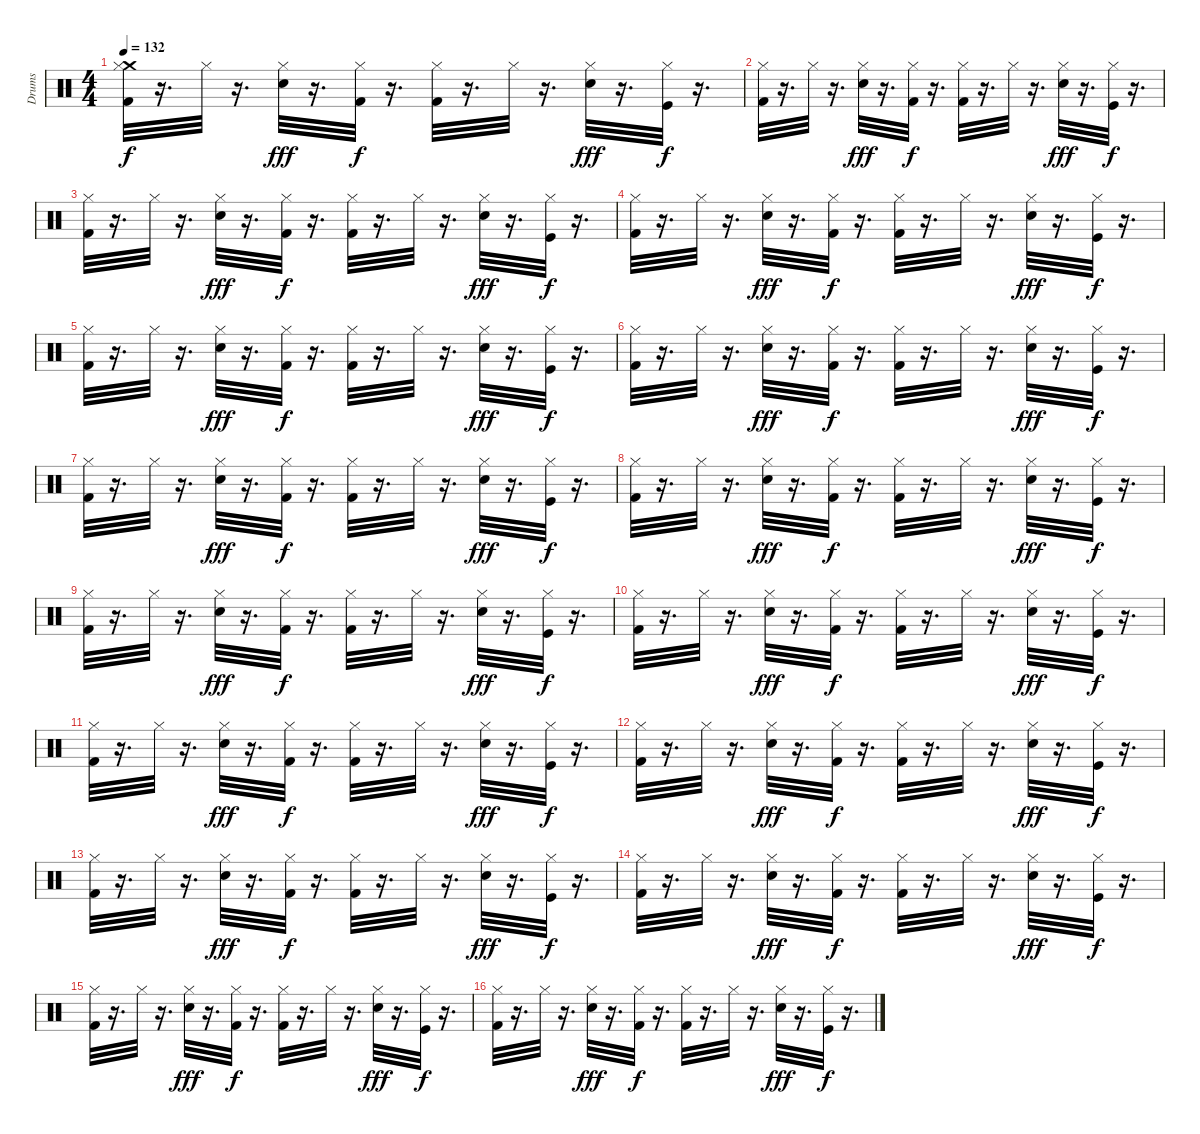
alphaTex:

\track ("Drums" "Drums") {instrument percussion}
\staff {score}
\articulation defaults
\ts (4 4)
\tempo 132
\clef neutral
\ks c
("Crash medium (hit)" "Hi-Hat (closed)" "Kick (hit) 2").32{dy f} r.16{d} "Hi-Hat (closed)".32 r.16{d} ("Hi-Hat (closed)" "Hand Clap (hit)").32{dy fff} r.16{d} ("Hi-Hat (closed)" "Kick (hit) 2").32{dy f} r.16{d} ("Hi-Hat (closed)" "Kick (hit) 2").32 r.16{d} "Hi-Hat (closed)".32 r.16{d} ("Hi-Hat (closed)" "Hand Clap (hit)").32{dy fff} r.16{d} ("Hi-Hat (closed)" "Kick (hit)").32{dy f} r.16{d} |
("Hi-Hat (closed)" "Kick (hit) 2").32 r.16{d} "Hi-Hat (closed)".32 r.16{d} ("Hi-Hat (closed)" "Hand Clap (hit)").32{dy fff} r.16{d} ("Hi-Hat (closed)" "Kick (hit) 2").32{dy f} r.16{d} ("Hi-Hat (closed)" "Kick (hit) 2").32 r.16{d} "Hi-Hat (closed)".32 r.16{d} ("Hi-Hat (closed)" "Hand Clap (hit)").32{dy fff} r.16{d} ("Hi-Hat (closed)" "Kick (hit)").32{dy f} r.16{d} |
("Hi-Hat (closed)" "Kick (hit) 2").32 r.16{d} "Hi-Hat (closed)".32 r.16{d} ("Hi-Hat (closed)" "Hand Clap (hit)").32{dy fff} r.16{d} ("Hi-Hat (closed)" "Kick (hit) 2").32{dy f} r.16{d} ("Hi-Hat (closed)" "Kick (hit) 2").32 r.16{d} "Hi-Hat (closed)".32 r.16{d} ("Hi-Hat (closed)" "Hand Clap (hit)").32{dy fff} r.16{d} ("Hi-Hat (closed)" "Kick (hit)").32{dy f} r.16{d} |
("Hi-Hat (closed)" "Kick (hit) 2").32 r.16{d} "Hi-Hat (closed)".32 r.16{d} ("Hi-Hat (closed)" "Hand Clap (hit)").32{dy fff} r.16{d} ("Hi-Hat (closed)" "Kick (hit) 2").32{dy f} r.16{d} ("Hi-Hat (closed)" "Kick (hit) 2").32 r.16{d} "Hi-Hat (closed)".32 r.16{d} ("Hi-Hat (closed)" "Hand Clap (hit)").32{dy fff} r.16{d} ("Hi-Hat (closed)" "Kick (hit)").32{dy f} r.16{d} |
("Hi-Hat (closed)" "Kick (hit) 2").32 r.16{d} "Hi-Hat (closed)".32 r.16{d} ("Hi-Hat (closed)" "Hand Clap (hit)").32{dy fff} r.16{d} ("Hi-Hat (closed)" "Kick (hit) 2").32{dy f} r.16{d} ("Hi-Hat (closed)" "Kick (hit) 2").32 r.16{d} "Hi-Hat (closed)".32 r.16{d} ("Hi-Hat (closed)" "Hand Clap (hit)").32{dy fff} r.16{d} ("Hi-Hat (closed)" "Kick (hit)").32{dy f} r.16{d} |
("Hi-Hat (closed)" "Kick (hit) 2").32 r.16{d} "Hi-Hat (closed)".32 r.16{d} ("Hi-Hat (closed)" "Hand Clap (hit)").32{dy fff} r.16{d} ("Hi-Hat (closed)" "Kick (hit) 2").32{dy f} r.16{d} ("Hi-Hat (closed)" "Kick (hit) 2").32 r.16{d} "Hi-Hat (closed)".32 r.16{d} ("Hi-Hat (closed)" "Hand Clap (hit)").32{dy fff} r.16{d} ("Hi-Hat (closed)" "Kick (hit)").32{dy f} r.16{d} |
("Hi-Hat (closed)" "Kick (hit) 2").32 r.16{d} "Hi-Hat (closed)".32 r.16{d} ("Hi-Hat (closed)" "Hand Clap (hit)").32{dy fff} r.16{d} ("Hi-Hat (closed)" "Kick (hit) 2").32{dy f} r.16{d} ("Hi-Hat (closed)" "Kick (hit) 2").32 r.16{d} "Hi-Hat (closed)".32 r.16{d} ("Hi-Hat (closed)" "Hand Clap (hit)").32{dy fff} r.16{d} ("Hi-Hat (closed)" "Kick (hit)").32{dy f} r.16{d} |
("Hi-Hat (closed)" "Kick (hit) 2").32 r.16{d} "Hi-Hat (closed)".32 r.16{d} ("Hi-Hat (closed)" "Hand Clap (hit)").32{dy fff} r.16{d} ("Hi-Hat (closed)" "Kick (hit) 2").32{dy f} r.16{d} ("Hi-Hat (closed)" "Kick (hit) 2").32 r.16{d} "Hi-Hat (closed)".32 r.16{d} ("Hi-Hat (closed)" "Hand Clap (hit)").32{dy fff} r.16{d} ("Hi-Hat (closed)" "Kick (hit)").32{dy f} r.16{d} |
("Hi-Hat (closed)" "Kick (hit) 2").32 r.16{d} "Hi-Hat (closed)".32 r.16{d} ("Hi-Hat (closed)" "Hand Clap (hit)").32{dy fff} r.16{d} ("Hi-Hat (closed)" "Kick (hit) 2").32{dy f} r.16{d} ("Hi-Hat (closed)" "Kick (hit) 2").32 r.16{d} "Hi-Hat (closed)".32 r.16{d} ("Hi-Hat (closed)" "Hand Clap (hit)").32{dy fff} r.16{d} ("Hi-Hat (closed)" "Kick (hit)").32{dy f} r.16{d} |
("Hi-Hat (closed)" "Kick (hit) 2").32 r.16{d} "Hi-Hat (closed)".32 r.16{d} ("Hi-Hat (closed)" "Hand Clap (hit)").32{dy fff} r.16{d} ("Hi-Hat (closed)" "Kick (hit) 2").32{dy f} r.16{d} ("Hi-Hat (closed)" "Kick (hit) 2").32 r.16{d} "Hi-Hat (closed)".32 r.16{d} ("Hi-Hat (closed)" "Hand Clap (hit)").32{dy fff} r.16{d} ("Hi-Hat (closed)" "Kick (hit)").32{dy f} r.16{d} |
("Hi-Hat (closed)" "Kick (hit) 2").32 r.16{d} "Hi-Hat (closed)".32 r.16{d} ("Hi-Hat (closed)" "Hand Clap (hit)").32{dy fff} r.16{d} ("Hi-Hat (closed)" "Kick (hit) 2").32{dy f} r.16{d} ("Hi-Hat (closed)" "Kick (hit) 2").32 r.16{d} "Hi-Hat (closed)".32 r.16{d} ("Hi-Hat (closed)" "Hand Clap (hit)").32{dy fff} r.16{d} ("Hi-Hat (closed)" "Kick (hit)").32{dy f} r.16{d} |
("Hi-Hat (closed)" "Kick (hit) 2").32 r.16{d} "Hi-Hat (closed)".32 r.16{d} ("Hi-Hat (closed)" "Hand Clap (hit)").32{dy fff} r.16{d} ("Hi-Hat (closed)" "Kick (hit) 2").32{dy f} r.16{d} ("Hi-Hat (closed)" "Kick (hit) 2").32 r.16{d} "Hi-Hat (closed)".32 r.16{d} ("Hi-Hat (closed)" "Hand Clap (hit)").32{dy fff} r.16{d} ("Hi-Hat (closed)" "Kick (hit)").32{dy f} r.16{d} |
("Hi-Hat (closed)" "Kick (hit) 2").32 r.16{d} "Hi-Hat (closed)".32 r.16{d} ("Hi-Hat (closed)" "Hand Clap (hit)").32{dy fff} r.16{d} ("Hi-Hat (closed)" "Kick (hit) 2").32{dy f} r.16{d} ("Hi-Hat (closed)" "Kick (hit) 2").32 r.16{d} "Hi-Hat (closed)".32 r.16{d} ("Hi-Hat (closed)" "Hand Clap (hit)").32{dy fff} r.16{d} ("Hi-Hat (closed)" "Kick (hit)").32{dy f} r.16{d} |
("Hi-Hat (closed)" "Kick (hit) 2").32 r.16{d} "Hi-Hat (closed)".32 r.16{d} ("Hi-Hat (closed)" "Hand Clap (hit)").32{dy fff} r.16{d} ("Hi-Hat (closed)" "Kick (hit) 2").32{dy f} r.16{d} ("Hi-Hat (closed)" "Kick (hit) 2").32 r.16{d} "Hi-Hat (closed)".32 r.16{d} ("Hi-Hat (closed)" "Hand Clap (hit)").32{dy fff} r.16{d} ("Hi-Hat (closed)" "Kick (hit)").32{dy f} r.16{d} |
("Hi-Hat (closed)" "Kick (hit) 2").32 r.16{d} "Hi-Hat (closed)".32 r.16{d} ("Hi-Hat (closed)" "Hand Clap (hit)").32{dy fff} r.16{d} ("Hi-Hat (closed)" "Kick (hit) 2").32{dy f} r.16{d} ("Hi-Hat (closed)" "Kick (hit) 2").32 r.16{d} "Hi-Hat (closed)".32 r.16{d} ("Hi-Hat (closed)" "Hand Clap (hit)").32{dy fff} r.16{d} ("Hi-Hat (closed)" "Kick (hit)").32{dy f} r.16{d} |
("Hi-Hat (closed)" "Kick (hit) 2").32 r.16{d} "Hi-Hat (closed)".32 r.16{d} ("Hi-Hat (closed)" "Hand Clap (hit)").32{dy fff} r.16{d} ("Hi-Hat (closed)" "Kick (hit) 2").32{dy f} r.16{d} ("Hi-Hat (closed)" "Kick (hit) 2").32 r.16{d} "Hi-Hat (closed)".32 r.16{d} ("Hi-Hat (closed)" "Hand Clap (hit)").32{dy fff} r.16{d} ("Hi-Hat (closed)" "Kick (hit)").32{dy f} r.16{d}
